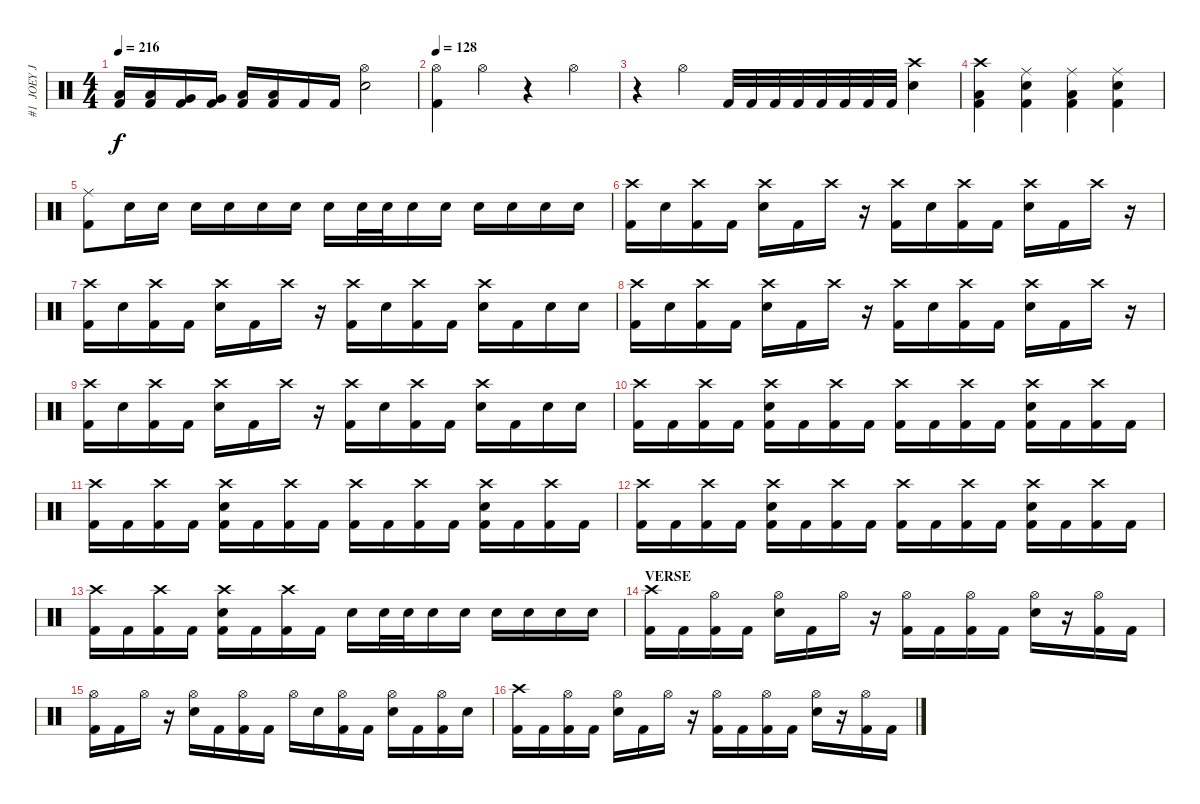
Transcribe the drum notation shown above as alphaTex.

\track ("#1  JOEY JORDISON" "#1  JOEY J") {instrument percussion}
\staff {score}
\articulation defaults
\ts (4 4)
\tempo 216
\clef neutral
\ks c
("Low Tom (hit)" "Kick (hit) 2").16{dy f} ("Low Tom (hit)" "Kick (hit) 2").16 ("Very Low Tom (hit)" "Kick (hit) 2").16 ("Very Low Tom (hit)" "Kick (hit) 2").16 ("Low Floor Tom (hit)" "Kick (hit) 2").16 ("Low Floor Tom (hit)" "Kick (hit) 2").16 "Kick (hit) 2".16 "Kick (hit) 2".16 ("Hi-Hat (open)" "Electric Snare (hit)").2 |
\tempo 128
("Hi-Hat (open)" "Kick (hit) 2").4 "Hi-Hat (open)".4 r.4 "Hi-Hat (open)".4 |
r.4 "Hi-Hat (open)".4 "Kick (hit) 2".32 "Kick (hit) 2".32 "Kick (hit) 2".32 "Kick (hit) 2".32 "Kick (hit) 2".32 "Kick (hit) 2".32 "Kick (hit) 2".32 "Kick (hit) 2".32 ("Crash high (hit)" "Electric Snare (hit)").4 |
("Crash high (hit)" "Low Floor Tom (hit)" "Kick (hit) 2").4 ("Ride (middle)" "Electric Snare (hit)" "Kick (hit) 2").4 ("Ride (middle)" "Low Floor Tom (hit)" "Kick (hit) 2").4 ("Ride (middle)" "Electric Snare (hit)" "Kick (hit) 2").4 |
\section ("" "")
("Ride (middle)" "Kick (hit) 2").8 "Electric Snare (hit)".16 "Electric Snare (hit)".16 "Electric Snare (hit)".16 "Electric Snare (hit)".16 "Electric Snare (hit)".16 "Electric Snare (hit)".16 "Electric Snare (hit)".16 "Electric Snare (hit)".32 "Electric Snare (hit)".32 "Electric Snare (hit)".16 "Electric Snare (hit)".16 "Electric Snare (hit)".16 "Electric Snare (hit)".16 "Electric Snare (hit)".16 "Electric Snare (hit)".16 |
("Crash high (hit)" "Kick (hit) 2").16 "Electric Snare (hit)".16 ("Crash high (hit)" "Kick (hit) 2").16 "Kick (hit) 2".16 ("Crash high (hit)" "Electric Snare (hit)").16 "Kick (hit) 2".16 "Crash high (hit)".16 r.16 ("Crash high (hit)" "Kick (hit) 2").16 "Electric Snare (hit)".16 ("Crash high (hit)" "Kick (hit) 2").16 "Kick (hit) 2".16 ("Crash high (hit)" "Electric Snare (hit)").16 "Kick (hit) 2".16 "Crash high (hit)".16 r.16 |
("Crash high (hit)" "Kick (hit) 2").16 "Electric Snare (hit)".16 ("Crash high (hit)" "Kick (hit) 2").16 "Kick (hit) 2".16 ("Crash high (hit)" "Electric Snare (hit)").16 "Kick (hit) 2".16 "Crash high (hit)".16 r.16 ("Crash high (hit)" "Kick (hit) 2").16 "Electric Snare (hit)".16 ("Crash high (hit)" "Kick (hit) 2").16 "Kick (hit) 2".16 ("Crash high (hit)" "Electric Snare (hit)").16 "Kick (hit) 2".16 "Electric Snare (hit)".16 "Electric Snare (hit)".16 |
("Crash high (hit)" "Kick (hit) 2").16 "Electric Snare (hit)".16 ("Crash high (hit)" "Kick (hit) 2").16 "Kick (hit) 2".16 ("Crash high (hit)" "Electric Snare (hit)").16 "Kick (hit) 2".16 "Crash high (hit)".16 r.16 ("Crash high (hit)" "Kick (hit) 2").16 "Electric Snare (hit)".16 ("Crash high (hit)" "Kick (hit) 2").16 "Kick (hit) 2".16 ("Crash high (hit)" "Electric Snare (hit)").16 "Kick (hit) 2".16 "Crash high (hit)".16 r.16 |
("Crash high (hit)" "Kick (hit) 2").16 "Electric Snare (hit)".16 ("Crash high (hit)" "Kick (hit) 2").16 "Kick (hit) 2".16 ("Crash high (hit)" "Electric Snare (hit)").16 "Kick (hit) 2".16 "Crash high (hit)".16 r.16 ("Crash high (hit)" "Kick (hit) 2").16 "Electric Snare (hit)".16 ("Crash high (hit)" "Kick (hit) 2").16 "Kick (hit) 2".16 ("Crash high (hit)" "Electric Snare (hit)").16 "Kick (hit) 2".16 "Electric Snare (hit)".16 "Electric Snare (hit)".16 |
("Crash high (hit)" "Kick (hit) 2").16{volume 14} "Kick (hit) 2".16 ("Crash high (hit)" "Kick (hit) 2").16 "Kick (hit) 2".16 ("Crash high (hit)" "Electric Snare (hit)" "Kick (hit) 2").16 "Kick (hit) 2".16 ("Crash high (hit)" "Kick (hit) 2").16 "Kick (hit) 2".16 ("Crash high (hit)" "Kick (hit) 2").16 "Kick (hit) 2".16 ("Crash high (hit)" "Kick (hit) 2").16 "Kick (hit) 2".16 ("Crash high (hit)" "Electric Snare (hit)" "Kick (hit) 2").16 "Kick (hit) 2".16 ("Crash high (hit)" "Kick (hit) 2").16 "Kick (hit) 2".16 |
("Crash high (hit)" "Kick (hit) 2").16 "Kick (hit) 2".16 ("Crash high (hit)" "Kick (hit) 2").16 "Kick (hit) 2".16 ("Crash high (hit)" "Electric Snare (hit)" "Kick (hit) 2").16 "Kick (hit) 2".16 ("Crash high (hit)" "Kick (hit) 2").16 "Kick (hit) 2".16 ("Crash high (hit)" "Kick (hit) 2").16 "Kick (hit) 2".16 ("Crash high (hit)" "Kick (hit) 2").16 "Kick (hit) 2".16 ("Crash high (hit)" "Electric Snare (hit)" "Kick (hit) 2").16 "Kick (hit) 2".16 ("Crash high (hit)" "Kick (hit) 2").16 "Kick (hit) 2".16 |
("Crash high (hit)" "Kick (hit) 2").16 "Kick (hit) 2".16 ("Crash high (hit)" "Kick (hit) 2").16 "Kick (hit) 2".16 ("Crash high (hit)" "Electric Snare (hit)" "Kick (hit) 2").16 "Kick (hit) 2".16 ("Crash high (hit)" "Kick (hit) 2").16 "Kick (hit) 2".16 ("Crash high (hit)" "Kick (hit) 2").16 "Kick (hit) 2".16 ("Crash high (hit)" "Kick (hit) 2").16 "Kick (hit) 2".16 ("Crash high (hit)" "Electric Snare (hit)" "Kick (hit) 2").16 "Kick (hit) 2".16 ("Crash high (hit)" "Kick (hit) 2").16 "Kick (hit) 2".16 |
("Crash high (hit)" "Kick (hit) 2").16 "Kick (hit) 2".16 ("Crash high (hit)" "Kick (hit) 2").16 "Kick (hit) 2".16 ("Crash high (hit)" "Electric Snare (hit)" "Kick (hit) 2").16 "Kick (hit) 2".16 ("Crash high (hit)" "Kick (hit) 2").16 "Kick (hit) 2".16 "Electric Snare (hit)".16 "Electric Snare (hit)".32 "Electric Snare (hit)".32 "Electric Snare (hit)".16 "Electric Snare (hit)".16 "Electric Snare (hit)".16 "Electric Snare (hit)".16 "Electric Snare (hit)".16 "Electric Snare (hit)".16 |
\section ("" "VERSE")
("Crash high (hit)" "Kick (hit) 2").16 "Kick (hit) 2".16 ("Hi-Hat (open)" "Kick (hit) 2").16 "Kick (hit) 2".16 ("Hi-Hat (open)" "Electric Snare (hit)").16 "Kick (hit) 2".16 "Hi-Hat (open)".16 r.16 ("Hi-Hat (open)" "Kick (hit) 2").16 "Kick (hit) 2".16 ("Hi-Hat (open)" "Kick (hit) 2").16 "Kick (hit) 2".16 ("Hi-Hat (open)" "Electric Snare (hit)").16 r.16 ("Hi-Hat (open)" "Kick (hit) 2").16 "Kick (hit) 2".16 |
("Hi-Hat (open)" "Kick (hit) 2").16 "Kick (hit) 2".16 "Hi-Hat (open)".16 r.16 ("Hi-Hat (open)" "Electric Snare (hit)").16 "Kick (hit) 2".16 ("Hi-Hat (open)" "Kick (hit) 2").16 "Kick (hit) 2".16 "Hi-Hat (open)".16 "Electric Snare (hit)".16 ("Hi-Hat (open)" "Kick (hit) 2").16 "Kick (hit) 2".16 ("Hi-Hat (open)" "Electric Snare (hit)").16 "Kick (hit) 2".16 ("Hi-Hat (open)" "Kick (hit) 2").16 "Electric Snare (hit)".16 |
("Crash high (hit)" "Kick (hit) 2").16 "Kick (hit) 2".16 ("Hi-Hat (open)" "Kick (hit) 2").16 "Kick (hit) 2".16 ("Hi-Hat (open)" "Electric Snare (hit)").16 "Kick (hit) 2".16 "Hi-Hat (open)".16 r.16 ("Hi-Hat (open)" "Kick (hit) 2").16 "Kick (hit) 2".16 ("Hi-Hat (open)" "Kick (hit) 2").16 "Kick (hit) 2".16 ("Hi-Hat (open)" "Electric Snare (hit)").16 r.16 ("Hi-Hat (open)" "Kick (hit) 2").16 "Kick (hit) 2".16
